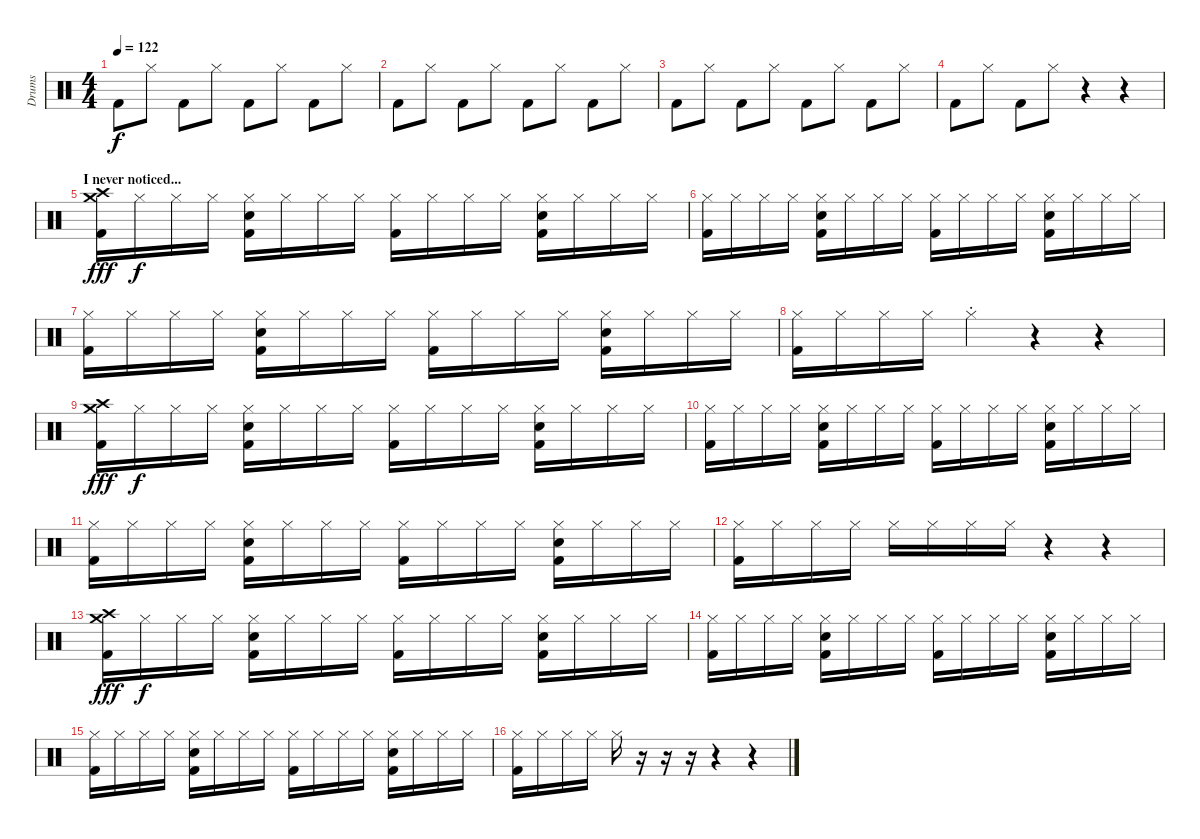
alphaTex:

\track ("Drums" "Drums") {instrument percussion}
\staff {score}
\articulation defaults
\ts (4 4)
\section ("" "")
\tempo 122
\clef neutral
\ks c "Kick (hit) 2".8{dy f} "Hi-Hat (closed)".8 "Kick (hit) 2".8 "Hi-Hat (closed)".8 "Kick (hit) 2".8 "Hi-Hat (closed)".8 "Kick (hit) 2".8 "Hi-Hat (closed)".8
|
"Kick (hit) 2".8 "Hi-Hat (closed)".8 "Kick (hit) 2".8 "Hi-Hat (closed)".8 "Kick (hit) 2".8 "Hi-Hat (closed)".8 "Kick (hit) 2".8 "Hi-Hat (closed)".8 |
"Kick (hit) 2".8 "Hi-Hat (closed)".8 "Kick (hit) 2".8 "Hi-Hat (closed)".8 "Kick (hit) 2".8 "Hi-Hat (closed)".8 "Kick (hit) 2".8 "Hi-Hat (closed)".8 |
"Kick (hit) 2".8 "Hi-Hat (closed)".8 "Kick (hit) 2".8 "Hi-Hat (closed)".8 r.4 r.4 |
\section ("" "I never noticed...")
("Crash medium (hit)" "Crash high (hit)" "Kick (hit) 2").16{dy fff} "Hi-Hat (closed)".16{dy f} "Hi-Hat (closed)".16 "Hi-Hat (closed)".16 ("Hi-Hat (closed)" "Electric Snare (hit)" "Kick (hit) 2").16 "Hi-Hat (closed)".16 "Hi-Hat (closed)".16 "Hi-Hat (closed)".16 ("Hi-Hat (closed)" "Kick (hit) 2").16 "Hi-Hat (closed)".16 "Hi-Hat (closed)".16 "Hi-Hat (closed)".16 ("Hi-Hat (closed)" "Electric Snare (hit)" "Kick (hit) 2").16 "Hi-Hat (closed)".16 "Hi-Hat (closed)".16 "Hi-Hat (closed)".16 |
("Hi-Hat (closed)" "Kick (hit) 2").16 "Hi-Hat (closed)".16 "Hi-Hat (closed)".16 "Hi-Hat (closed)".16 ("Hi-Hat (closed)" "Electric Snare (hit)" "Kick (hit) 2").16 "Hi-Hat (closed)".16 "Hi-Hat (closed)".16 "Hi-Hat (closed)".16 ("Hi-Hat (closed)" "Kick (hit) 2").16 "Hi-Hat (closed)".16 "Hi-Hat (closed)".16 "Hi-Hat (closed)".16 ("Hi-Hat (closed)" "Electric Snare (hit)" "Kick (hit) 2").16 "Hi-Hat (closed)".16 "Hi-Hat (closed)".16 "Hi-Hat (closed)".16 |
("Hi-Hat (closed)" "Kick (hit) 2").16 "Hi-Hat (closed)".16 "Hi-Hat (closed)".16 "Hi-Hat (closed)".16 ("Hi-Hat (closed)" "Electric Snare (hit)" "Kick (hit) 2").16 "Hi-Hat (closed)".16 "Hi-Hat (closed)".16 "Hi-Hat (closed)".16 ("Hi-Hat (closed)" "Kick (hit) 2").16 "Hi-Hat (closed)".16 "Hi-Hat (closed)".16 "Hi-Hat (closed)".16 ("Hi-Hat (closed)" "Electric Snare (hit)" "Kick (hit) 2").16 "Hi-Hat (closed)".16 "Hi-Hat (closed)".16 "Hi-Hat (closed)".16 |
("Hi-Hat (closed)" "Kick (hit) 2").16 "Hi-Hat (closed)".16 "Hi-Hat (closed)".16 "Hi-Hat (closed)".16 "Hi-Hat (closed)"{st}.4 r.4 r.4 |
("Crash medium (hit)" "Crash high (hit)" "Kick (hit) 2").16{dy fff} "Hi-Hat (closed)".16{dy f} "Hi-Hat (closed)".16 "Hi-Hat (closed)".16 ("Hi-Hat (closed)" "Electric Snare (hit)" "Kick (hit) 2").16 "Hi-Hat (closed)".16 "Hi-Hat (closed)".16 "Hi-Hat (closed)".16 ("Hi-Hat (closed)" "Kick (hit) 2").16 "Hi-Hat (closed)".16 "Hi-Hat (closed)".16 "Hi-Hat (closed)".16 ("Hi-Hat (closed)" "Electric Snare (hit)" "Kick (hit) 2").16 "Hi-Hat (closed)".16 "Hi-Hat (closed)".16 "Hi-Hat (closed)".16 |
("Hi-Hat (closed)" "Kick (hit) 2").16 "Hi-Hat (closed)".16 "Hi-Hat (closed)".16 "Hi-Hat (closed)".16 ("Hi-Hat (closed)" "Electric Snare (hit)" "Kick (hit) 2").16 "Hi-Hat (closed)".16 "Hi-Hat (closed)".16 "Hi-Hat (closed)".16 ("Hi-Hat (closed)" "Kick (hit) 2").16 "Hi-Hat (closed)".16 "Hi-Hat (closed)".16 "Hi-Hat (closed)".16 ("Hi-Hat (closed)" "Electric Snare (hit)" "Kick (hit) 2").16 "Hi-Hat (closed)".16 "Hi-Hat (closed)".16 "Hi-Hat (closed)".16 |
("Hi-Hat (closed)" "Kick (hit) 2").16 "Hi-Hat (closed)".16 "Hi-Hat (closed)".16 "Hi-Hat (closed)".16 ("Hi-Hat (closed)" "Electric Snare (hit)" "Kick (hit) 2").16 "Hi-Hat (closed)".16 "Hi-Hat (closed)".16 "Hi-Hat (closed)".16 ("Hi-Hat (closed)" "Kick (hit) 2").16 "Hi-Hat (closed)".16 "Hi-Hat (closed)".16 "Hi-Hat (closed)".16 ("Hi-Hat (closed)" "Electric Snare (hit)" "Kick (hit) 2").16 "Hi-Hat (closed)".16 "Hi-Hat (closed)".16 "Hi-Hat (closed)".16 |
("Hi-Hat (closed)" "Kick (hit) 2").16 "Hi-Hat (closed)".16 "Hi-Hat (closed)".16 "Hi-Hat (closed)".16 "Hi-Hat (closed)".16 "Hi-Hat (closed)".16 "Hi-Hat (closed)".16 "Hi-Hat (closed)".16 r.4 r.4 |
("Crash medium (hit)" "Crash high (hit)" "Kick (hit) 2").16{dy fff} "Hi-Hat (closed)".16{dy f} "Hi-Hat (closed)".16 "Hi-Hat (closed)".16 ("Hi-Hat (closed)" "Electric Snare (hit)" "Kick (hit) 2").16 "Hi-Hat (closed)".16 "Hi-Hat (closed)".16 "Hi-Hat (closed)".16 ("Hi-Hat (closed)" "Kick (hit) 2").16 "Hi-Hat (closed)".16 "Hi-Hat (closed)".16 "Hi-Hat (closed)".16 ("Hi-Hat (closed)" "Electric Snare (hit)" "Kick (hit) 2").16 "Hi-Hat (closed)".16 "Hi-Hat (closed)".16 "Hi-Hat (closed)".16 |
("Hi-Hat (closed)" "Kick (hit) 2").16 "Hi-Hat (closed)".16 "Hi-Hat (closed)".16 "Hi-Hat (closed)".16 ("Hi-Hat (closed)" "Electric Snare (hit)" "Kick (hit) 2").16 "Hi-Hat (closed)".16 "Hi-Hat (closed)".16 "Hi-Hat (closed)".16 ("Hi-Hat (closed)" "Kick (hit) 2").16 "Hi-Hat (closed)".16 "Hi-Hat (closed)".16 "Hi-Hat (closed)".16 ("Hi-Hat (closed)" "Electric Snare (hit)" "Kick (hit) 2").16 "Hi-Hat (closed)".16 "Hi-Hat (closed)".16 "Hi-Hat (closed)".16 |
("Hi-Hat (closed)" "Kick (hit) 2").16 "Hi-Hat (closed)".16 "Hi-Hat (closed)".16 "Hi-Hat (closed)".16 ("Hi-Hat (closed)" "Electric Snare (hit)" "Kick (hit) 2").16 "Hi-Hat (closed)".16 "Hi-Hat (closed)".16 "Hi-Hat (closed)".16 ("Hi-Hat (closed)" "Kick (hit) 2").16 "Hi-Hat (closed)".16 "Hi-Hat (closed)".16 "Hi-Hat (closed)".16 ("Hi-Hat (closed)" "Electric Snare (hit)" "Kick (hit) 2").16 "Hi-Hat (closed)".16 "Hi-Hat (closed)".16 "Hi-Hat (closed)".16 |
("Hi-Hat (closed)" "Kick (hit) 2").16 "Hi-Hat (closed)".16 "Hi-Hat (closed)".16 "Hi-Hat (closed)".16 "Hi-Hat (closed)".16 r.16 r.16 r.16 r.4 r.4
